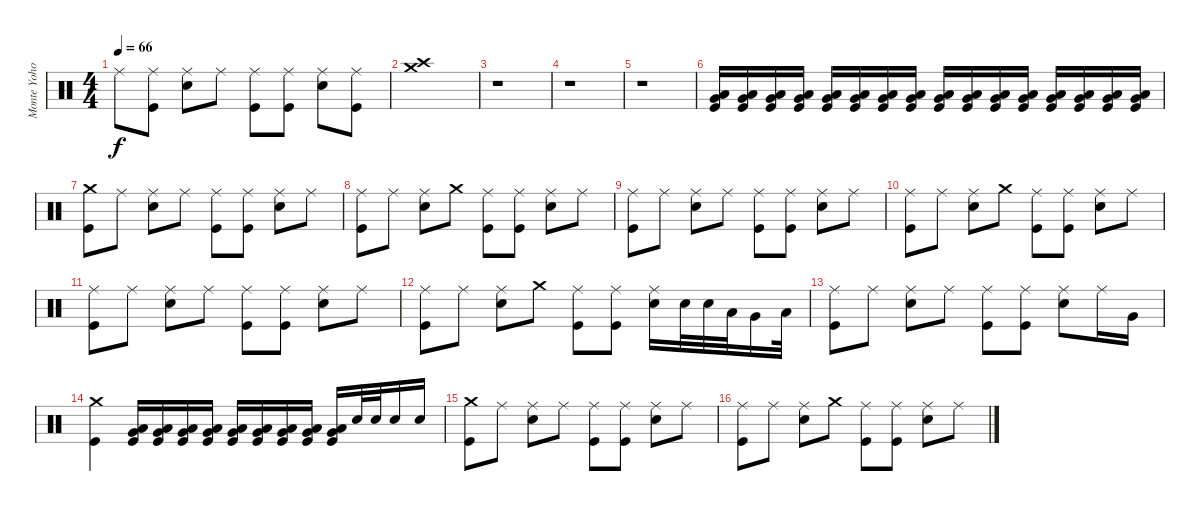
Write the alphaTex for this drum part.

\track ("Monte Yoho Drums" "Monte Yoho") {instrument percussion}
\staff {score}
\articulation defaults
\ts (4 4)
\tempo 66
\clef neutral
\ks c "Ride (middle)".8{dy f}
("Ride (middle)" "Kick (hit)").8 ("Ride (middle)" "Snare (hit) 2").8 "Ride (middle)".8 ("Ride (middle)" "Kick (hit)").8 ("Ride (middle)" "Kick (hit)").8 ("Ride (middle)" "Snare (hit) 2").8 ("Ride (middle)" "Kick (hit)").8 |
("Crash medium (hit)" "Crash high (hit)").1 |
r.1 |
r.1 |
r.1 |
("Low Floor Tom (hit)" "Very Low Tom (hit)" "Kick (hit)").16{volume 14} ("Low Floor Tom (hit)" "Very Low Tom (hit)" "Kick (hit)").16 ("Low Floor Tom (hit)" "Very Low Tom (hit)" "Kick (hit)").16 ("Low Floor Tom (hit)" "Very Low Tom (hit)" "Kick (hit)").16 ("Low Floor Tom (hit)" "Very Low Tom (hit)" "Kick (hit)").16 ("Low Floor Tom (hit)" "Very Low Tom (hit)" "Kick (hit)").16 ("Low Floor Tom (hit)" "Very Low Tom (hit)" "Kick (hit)").16 ("Low Floor Tom (hit)" "Very Low Tom (hit)" "Kick (hit)").16 ("Low Floor Tom (hit)" "Very Low Tom (hit)" "Kick (hit)").16 ("Low Floor Tom (hit)" "Very Low Tom (hit)" "Kick (hit)").16 ("Low Floor Tom (hit)" "Very Low Tom (hit)" "Kick (hit)").16 ("Low Floor Tom (hit)" "Very Low Tom (hit)" "Kick (hit)").16 ("Low Floor Tom (hit)" "Very Low Tom (hit)" "Kick (hit)").16 ("Low Floor Tom (hit)" "Very Low Tom (hit)" "Kick (hit)").16 ("Low Floor Tom (hit)" "Very Low Tom (hit)" "Kick (hit)").16 ("Low Floor Tom (hit)" "Very Low Tom (hit)" "Kick (hit)").16 |
("Crash medium (hit)" "Kick (hit)").8 "Ride (middle)".8 ("Ride (middle)" "Snare (hit) 2").8 "Ride (middle)".8 ("Ride (middle)" "Kick (hit)").8 ("Ride (middle)" "Kick (hit)").8 ("Ride (middle)" "Snare (hit) 2").8 "Ride (middle)".8 |
("Ride (middle)" "Kick (hit)").8 "Ride (middle)".8 ("Ride (middle)" "Snare (hit) 2").8 "Crash medium (hit)".8 ("Ride (middle)" "Kick (hit)").8 ("Ride (middle)" "Kick (hit)").8 ("Ride (middle)" "Snare (hit) 2").8 "Ride (middle)".8 |
("Ride (middle)" "Kick (hit)").8 "Ride (middle)".8 ("Ride (middle)" "Snare (hit) 2").8 "Ride (middle)".8 ("Ride (middle)" "Kick (hit)").8 ("Ride (middle)" "Kick (hit)").8 ("Ride (middle)" "Snare (hit) 2").8 "Ride (middle)".8 |
("Ride (middle)" "Kick (hit)").8 "Ride (middle)".8 ("Ride (middle)" "Snare (hit) 2").8 "Crash medium (hit)".8 ("Ride (middle)" "Kick (hit)").8 ("Ride (middle)" "Kick (hit)").8 ("Ride (middle)" "Snare (hit) 2").8 "Ride (middle)".8 |
("Ride (middle)" "Kick (hit)").8 "Ride (middle)".8 ("Ride (middle)" "Snare (hit) 2").8 "Ride (middle)".8 ("Ride (middle)" "Kick (hit)").8 ("Ride (middle)" "Kick (hit)").8 ("Ride (middle)" "Snare (hit) 2").8 "Ride (middle)".8 |
("Ride (middle)" "Kick (hit)").8 "Ride (middle)".8 ("Ride (middle)" "Snare (hit) 2").8 "Crash medium (hit)".8 ("Ride (middle)" "Kick (hit)").8 ("Ride (middle)" "Kick (hit)").8 ("Ride (middle)" "Snare (hit) 2").16 "Snare (hit) 2".32 "Snare (hit) 2".32 "Low Tom (hit)".32 "Very Low Tom (hit)".16 "Low Floor Tom (hit)".32 |
("Ride (middle)" "Kick (hit)").8 "Ride (middle)".8 ("Ride (middle)" "Snare (hit) 2").8 "Ride (middle)".8 ("Ride (middle)" "Kick (hit)").8 ("Ride (middle)" "Kick (hit)").8 ("Ride (middle)" "Snare (hit) 2").8 "Ride (middle)".16 "Very Low Tom (hit)".16 |
("Crash medium (hit)" "Kick (hit)").4 ("Very Low Tom (hit)" "Low Floor Tom (hit)" "Kick (hit)").16 ("Very Low Tom (hit)" "Low Floor Tom (hit)" "Kick (hit)").16 ("Very Low Tom (hit)" "Low Floor Tom (hit)" "Kick (hit)").16 ("Very Low Tom (hit)" "Low Floor Tom (hit)" "Kick (hit)").16 ("Very Low Tom (hit)" "Low Floor Tom (hit)" "Kick (hit)").16 ("Very Low Tom (hit)" "Low Floor Tom (hit)" "Kick (hit)").16 ("Very Low Tom (hit)" "Low Floor Tom (hit)" "Kick (hit)").16 ("Very Low Tom (hit)" "Low Floor Tom (hit)" "Kick (hit)").16 ("Very Low Tom (hit)" "Low Floor Tom (hit)" "Kick (hit)").16 "Snare (hit) 2".32 "Snare (hit) 2".32 "Snare (hit) 2".16 "Snare (hit) 2".16 |
("Crash medium (hit)" "Kick (hit)").8 "Ride (middle)".8 ("Ride (middle)" "Snare (hit) 2").8 "Ride (middle)".8 ("Ride (middle)" "Kick (hit)").8 ("Ride (middle)" "Kick (hit)").8 ("Ride (middle)" "Snare (hit) 2").8 "Ride (middle)".8 |
("Ride (middle)" "Kick (hit)").8 "Ride (middle)".8 ("Ride (middle)" "Snare (hit) 2").8 "Crash medium (hit)".8 ("Ride (middle)" "Kick (hit)").8 ("Ride (middle)" "Kick (hit)").8 ("Ride (middle)" "Snare (hit) 2").8 "Ride (middle)".8
